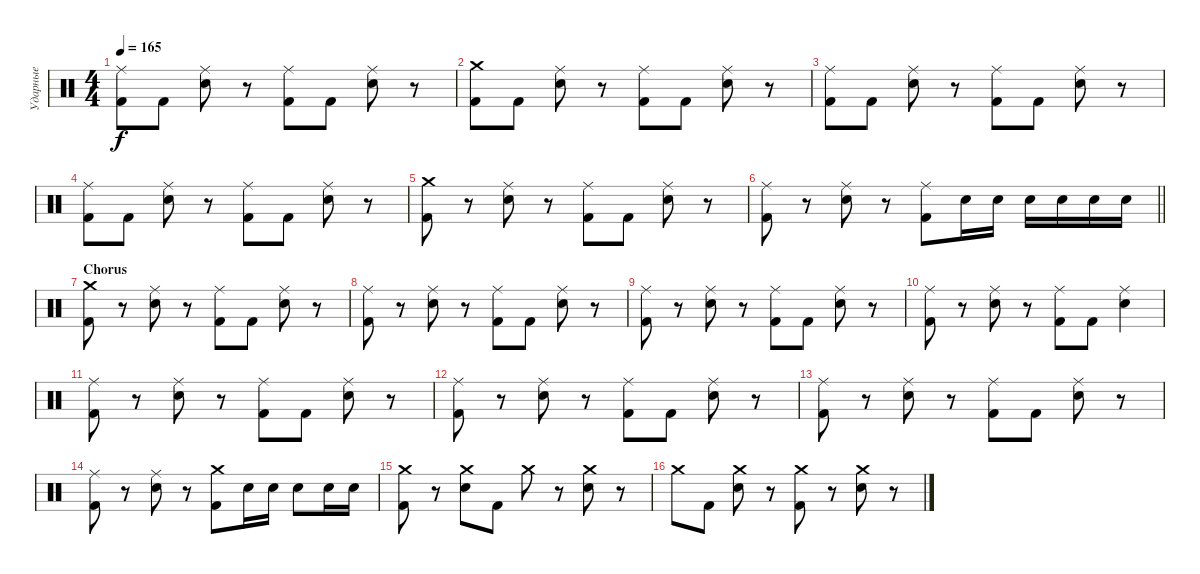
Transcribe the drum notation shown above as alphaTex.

\track ("Ударные" "Ударные") {instrument percussion}
\staff {score}
\articulation defaults
\ts (4 4)
\tempo 165
\clef neutral
\ks c
("Ride (middle)" "Kick (hit) 2").8{dy f} "Kick (hit) 2".8 ("Ride (middle)" "Electric Snare (hit)").8 r.8 ("Ride (middle)" "Kick (hit) 2").8 "Kick (hit) 2".8 ("Ride (middle)" "Electric Snare (hit)").8 r.8 |
("Crash medium (hit)" "Kick (hit) 2").8 "Kick (hit) 2".8 ("Ride (middle)" "Electric Snare (hit)").8 r.8 ("Ride (middle)" "Kick (hit) 2").8 "Kick (hit) 2".8 ("Ride (middle)" "Electric Snare (hit)").8 r.8 |
("Ride (middle)" "Kick (hit) 2").8 "Kick (hit) 2".8 ("Ride (middle)" "Electric Snare (hit)").8 r.8 ("Ride (middle)" "Kick (hit) 2").8 "Kick (hit) 2".8 ("Ride (middle)" "Electric Snare (hit)").8 r.8 |
("Ride (middle)" "Kick (hit) 2").8 "Kick (hit) 2".8 ("Ride (middle)" "Electric Snare (hit)").8 r.8 ("Ride (middle)" "Kick (hit) 2").8 "Kick (hit) 2".8 ("Ride (middle)" "Electric Snare (hit)").8 r.8 |
("Crash medium (hit)" "Kick (hit) 2").8 r.8 ("Ride (middle)" "Electric Snare (hit)").8 r.8 ("Ride (middle)" "Kick (hit) 2").8 "Kick (hit) 2".8 ("Ride (middle)" "Electric Snare (hit)").8 r.8 |
\barLineRight lightlight
("Ride (middle)" "Kick (hit) 2").8 r.8 ("Ride (middle)" "Electric Snare (hit)").8 r.8 ("Ride (middle)" "Kick (hit) 2").8 "Electric Snare (hit)".16 "Electric Snare (hit)".16 "Electric Snare (hit)".16 "Electric Snare (hit)".16 "Electric Snare (hit)".16 "Electric Snare (hit)".16 |
\section ("" "Chorus")
("Crash medium (hit)" "Kick (hit) 2").8 r.8 ("Ride (middle)" "Electric Snare (hit)").8 r.8 ("Ride (middle)" "Kick (hit) 2").8 "Kick (hit) 2".8 ("Ride (middle)" "Electric Snare (hit)").8 r.8 |
("Ride (middle)" "Kick (hit) 2").8 r.8 ("Ride (middle)" "Electric Snare (hit)").8 r.8 ("Ride (middle)" "Kick (hit) 2").8 "Kick (hit) 2".8 ("Ride (middle)" "Electric Snare (hit)").8 r.8 |
("Ride (middle)" "Kick (hit) 2").8 r.8 ("Ride (middle)" "Electric Snare (hit)").8 r.8 ("Ride (middle)" "Kick (hit) 2").8 "Kick (hit) 2".8 ("Ride (middle)" "Electric Snare (hit)").8 r.8 |
("Ride (middle)" "Kick (hit) 2").8 r.8 ("Ride (middle)" "Electric Snare (hit)").8 r.8 ("Ride (middle)" "Kick (hit) 2").8 "Kick (hit) 2".8 ("Ride (middle)" "Electric Snare (hit)").4 |
("Ride (middle)" "Kick (hit) 2").8 r.8 ("Ride (middle)" "Electric Snare (hit)").8 r.8 ("Ride (middle)" "Kick (hit) 2").8 "Kick (hit) 2".8 ("Ride (middle)" "Electric Snare (hit)").8 r.8 |
("Ride (middle)" "Kick (hit) 2").8 r.8 ("Ride (middle)" "Electric Snare (hit)").8 r.8 ("Ride (middle)" "Kick (hit) 2").8 "Kick (hit) 2".8 ("Ride (middle)" "Electric Snare (hit)").8 r.8 |
("Ride (middle)" "Kick (hit) 2").8 r.8 ("Ride (middle)" "Electric Snare (hit)").8 r.8 ("Ride (middle)" "Kick (hit) 2").8 "Kick (hit) 2".8 ("Ride (middle)" "Electric Snare (hit)").8 r.8 |
("Ride (middle)" "Kick (hit) 2").8 r.8 ("Ride (middle)" "Electric Snare (hit)").8 r.8 ("Crash medium (hit)" "Kick (hit) 2").8 "Electric Snare (hit)".16 "Electric Snare (hit)".16 "Electric Snare (hit)".8 "Electric Snare (hit)".16 "Electric Snare (hit)".16 |
("Crash medium (hit)" "Kick (hit) 2").8 r.8 ("Crash medium (hit)" "Electric Snare (hit)").8 "Kick (hit) 2".8 "Crash medium (hit)".8 r.8 ("Crash medium (hit)" "Electric Snare (hit)").8 r.8 |
"Crash medium (hit)".8 "Kick (hit) 2".8 ("Crash medium (hit)" "Electric Snare (hit)").8 r.8 ("Crash medium (hit)" "Kick (hit) 2").8 r.8 ("Crash medium (hit)" "Electric Snare (hit)").8 r.8
